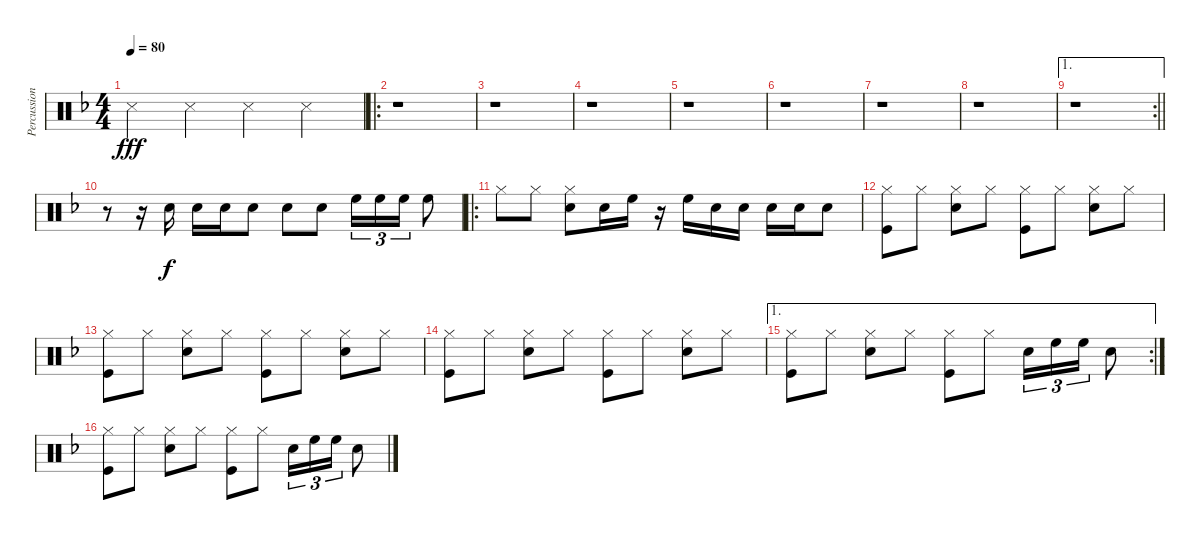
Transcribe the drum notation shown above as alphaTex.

\track ("Percussion" "Percussion") {instrument percussion}
\staff {score}
\articulation defaults
\ts (4 4)
\tempo 80
\clef neutral
\ks f "Snare (side stick) 3".4{dy fff} "Snare (side stick) 3".4 "Snare (side stick) 3".4 "Snare (side stick) 3".4
|
\ro
r.1 |
r.1 |
r.1 |
r.1 |
r.1 |
r.1 |
r.1 |
\ae 1
\rc 2
\barLineRight lightlight
r.1 |
r.8 r.16 "Snare (hit) 2".16{dy f} "Snare (hit) 2".16 "Snare (hit) 2".16 "Snare (hit) 2".8 "Snare (hit) 2".8 "Snare (hit) 2".8 "High Floor Tom (hit)".16{tu (3 2)} "High Floor Tom (hit)".16{tu (3 2)} "High Floor Tom (hit)".16{tu (3 2)} "High Floor Tom (hit)".8 |
\ro "Hi-Hat (closed)".8 "Hi-Hat (closed)".8
("Hi-Hat (closed)" "Snare (hit) 2").8 "Snare (hit) 2".16 "High Floor Tom (hit)".16 r.16 "High Floor Tom (hit)".16 "Snare (hit) 2".16 "Snare (hit) 2".16 "Snare (hit) 2".16 "Snare (hit) 2".16 "Snare (hit) 2".8 |
("Hi-Hat (closed)" "Kick (hit)").8 "Hi-Hat (closed)".8 ("Hi-Hat (closed)" "Snare (hit) 2").8 "Hi-Hat (closed)".8 ("Hi-Hat (closed)" "Kick (hit)").8 "Hi-Hat (closed)".8 ("Hi-Hat (closed)" "Snare (hit) 2").8 "Hi-Hat (closed)".8 |
("Hi-Hat (closed)" "Kick (hit)").8 "Hi-Hat (closed)".8 ("Hi-Hat (closed)" "Snare (hit) 2").8 "Hi-Hat (closed)".8 ("Hi-Hat (closed)" "Kick (hit)").8 "Hi-Hat (closed)".8 ("Hi-Hat (closed)" "Snare (hit) 2").8 "Hi-Hat (closed)".8 |
("Hi-Hat (closed)" "Kick (hit)").8 "Hi-Hat (closed)".8 ("Hi-Hat (closed)" "Snare (hit) 2").8 "Hi-Hat (closed)".8 ("Hi-Hat (closed)" "Kick (hit)").8 "Hi-Hat (closed)".8 ("Hi-Hat (closed)" "Snare (hit) 2").8 "Hi-Hat (closed)".8 |
\ae 1
\rc 2
("Hi-Hat (closed)" "Kick (hit)").8 "Hi-Hat (closed)".8 ("Hi-Hat (closed)" "Snare (hit) 2").8 "Hi-Hat (closed)".8 ("Hi-Hat (closed)" "Kick (hit)").8 "Hi-Hat (closed)".8 "Snare (hit) 2".16{tu (3 2)} "High Floor Tom (hit)".16{tu (3 2)} "High Floor Tom (hit)".16{tu (3 2)} "Snare (hit) 2".8 |
("Hi-Hat (closed)" "Kick (hit)").8 "Hi-Hat (closed)".8 ("Hi-Hat (closed)" "Snare (hit) 2").8 "Hi-Hat (closed)".8 ("Hi-Hat (closed)" "Kick (hit)").8 "Hi-Hat (closed)".8 "Snare (hit) 2".16{tu (3 2)} "High Floor Tom (hit)".16{tu (3 2)} "High Floor Tom (hit)".16{tu (3 2)} "Snare (hit) 2".8
